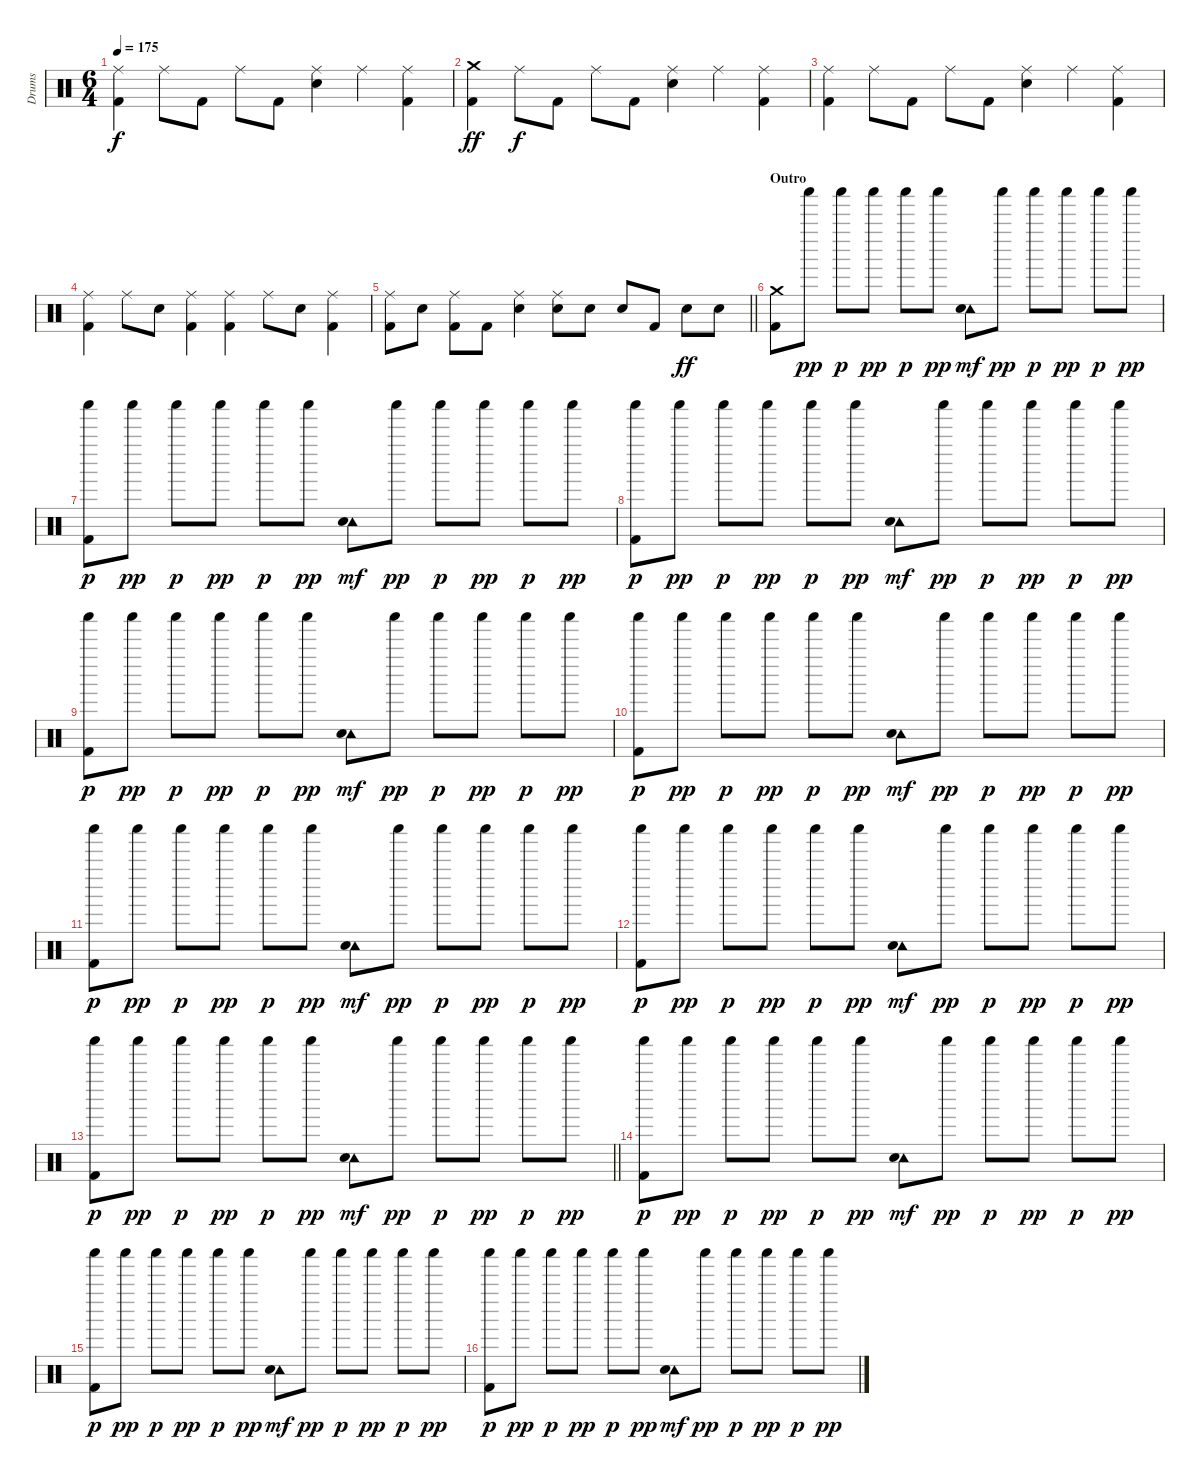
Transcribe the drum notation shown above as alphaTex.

\track ("Drums" "Drums") {instrument percussion}
\staff {score}
\articulation defaults
\ts (6 4)
\tempo 175
\clef neutral
\ks c
("Ride (middle)" "Kick (hit) 2").4{dy f} "Ride (middle)".8 "Kick (hit) 2".8 "Ride (middle)".8 "Kick (hit) 2".8 ("Ride (middle)" "Snare (hit) 2").4 "Ride (middle)".4 ("Ride (middle)" "Kick (hit) 2").4 |
("Crash medium (hit)" "Kick (hit) 2").4{dy ff} "Ride (middle)".8{dy f} "Kick (hit) 2".8 "Ride (middle)".8 "Kick (hit) 2".8 ("Ride (middle)" "Snare (hit) 2").4 "Ride (middle)".4 ("Ride (middle)" "Kick (hit) 2").4 |
("Ride (middle)" "Kick (hit) 2").4 "Ride (middle)".8 "Kick (hit) 2".8 "Ride (middle)".8 "Kick (hit) 2".8 ("Ride (middle)" "Snare (hit) 2").4 "Ride (middle)".4 ("Ride (middle)" "Kick (hit) 2").4 |
("Ride (middle)" "Kick (hit) 2").4 "Ride (middle)".8 "Snare (hit) 2".8 ("Ride (middle)" "Kick (hit) 2").4 ("Ride (middle)" "Kick (hit) 2").4 "Ride (middle)".8 "Snare (hit) 2".8 ("Ride (middle)" "Kick (hit) 2").4 |
\barLineRight lightlight
("Ride (middle)" "Kick (hit) 2").8 "Snare (hit) 2".8 ("Ride (middle)" "Kick (hit) 2").8 "Kick (hit) 2".8 ("Ride (middle)" "Snare (hit) 2").4 ("Ride (middle)" "Snare (hit) 2").8 "Snare (hit) 2".8 "Snare (hit) 2".8 "Kick (hit) 2".8 "Snare (hit) 2".8{dy ff} "Snare (hit) 2".8 |
\section ("" "Outro")
("Crash medium (hit)" "Kick (hit) 2").8 "Shaker (hit)".8{dy pp} "Shaker (hit)".8{dy p} "Shaker (hit)".8{dy pp} "Shaker (hit)".8{dy p} "Shaker (hit)".8{dy pp} ("Tambourine (hit)" "Snare (hit) 2").8{dy mf} "Shaker (hit)".8{dy pp} "Shaker (hit)".8{dy p} "Shaker (hit)".8{dy pp} "Shaker (hit)".8{dy p} "Shaker (hit)".8{dy pp} |
("Shaker (hit)" "Kick (hit) 2").8{dy p} "Shaker (hit)".8{dy pp} "Shaker (hit)".8{dy p} "Shaker (hit)".8{dy pp} "Shaker (hit)".8{dy p} "Shaker (hit)".8{dy pp} ("Tambourine (hit)" "Snare (hit) 2").8{dy mf} "Shaker (hit)".8{dy pp} "Shaker (hit)".8{dy p} "Shaker (hit)".8{dy pp} "Shaker (hit)".8{dy p} "Shaker (hit)".8{dy pp} |
("Shaker (hit)" "Kick (hit) 2").8{dy p} "Shaker (hit)".8{dy pp} "Shaker (hit)".8{dy p} "Shaker (hit)".8{dy pp} "Shaker (hit)".8{dy p} "Shaker (hit)".8{dy pp} ("Tambourine (hit)" "Snare (hit) 2").8{dy mf} "Shaker (hit)".8{dy pp} "Shaker (hit)".8{dy p} "Shaker (hit)".8{dy pp} "Shaker (hit)".8{dy p} "Shaker (hit)".8{dy pp} |
("Shaker (hit)" "Kick (hit) 2").8{dy p} "Shaker (hit)".8{dy pp} "Shaker (hit)".8{dy p} "Shaker (hit)".8{dy pp} "Shaker (hit)".8{dy p} "Shaker (hit)".8{dy pp} ("Tambourine (hit)" "Snare (hit) 2").8{dy mf} "Shaker (hit)".8{dy pp} "Shaker (hit)".8{dy p} "Shaker (hit)".8{dy pp} "Shaker (hit)".8{dy p} "Shaker (hit)".8{dy pp} |
("Shaker (hit)" "Kick (hit) 2").8{dy p} "Shaker (hit)".8{dy pp} "Shaker (hit)".8{dy p} "Shaker (hit)".8{dy pp} "Shaker (hit)".8{dy p} "Shaker (hit)".8{dy pp} ("Tambourine (hit)" "Snare (hit) 2").8{dy mf} "Shaker (hit)".8{dy pp} "Shaker (hit)".8{dy p} "Shaker (hit)".8{dy pp} "Shaker (hit)".8{dy p} "Shaker (hit)".8{dy pp} |
("Shaker (hit)" "Kick (hit) 2").8{dy p} "Shaker (hit)".8{dy pp} "Shaker (hit)".8{dy p} "Shaker (hit)".8{dy pp} "Shaker (hit)".8{dy p} "Shaker (hit)".8{dy pp} ("Tambourine (hit)" "Snare (hit) 2").8{dy mf} "Shaker (hit)".8{dy pp} "Shaker (hit)".8{dy p} "Shaker (hit)".8{dy pp} "Shaker (hit)".8{dy p} "Shaker (hit)".8{dy pp} |
("Shaker (hit)" "Kick (hit) 2").8{dy p} "Shaker (hit)".8{dy pp} "Shaker (hit)".8{dy p} "Shaker (hit)".8{dy pp} "Shaker (hit)".8{dy p} "Shaker (hit)".8{dy pp} ("Tambourine (hit)" "Snare (hit) 2").8{dy mf} "Shaker (hit)".8{dy pp} "Shaker (hit)".8{dy p} "Shaker (hit)".8{dy pp} "Shaker (hit)".8{dy p} "Shaker (hit)".8{dy pp} |
\barLineRight lightlight
("Shaker (hit)" "Kick (hit) 2").8{dy p} "Shaker (hit)".8{dy pp} "Shaker (hit)".8{dy p} "Shaker (hit)".8{dy pp} "Shaker (hit)".8{dy p} "Shaker (hit)".8{dy pp} ("Tambourine (hit)" "Snare (hit) 2").8{dy mf} "Shaker (hit)".8{dy pp} "Shaker (hit)".8{dy p} "Shaker (hit)".8{dy pp} "Shaker (hit)".8{dy p} "Shaker (hit)".8{dy pp} |
("Shaker (hit)" "Kick (hit) 2").8{dy p} "Shaker (hit)".8{dy pp} "Shaker (hit)".8{dy p} "Shaker (hit)".8{dy pp} "Shaker (hit)".8{dy p} "Shaker (hit)".8{dy pp} ("Tambourine (hit)" "Snare (hit) 2").8{dy mf} "Shaker (hit)".8{dy pp} "Shaker (hit)".8{dy p} "Shaker (hit)".8{dy pp} "Shaker (hit)".8{dy p} "Shaker (hit)".8{dy pp} |
("Shaker (hit)" "Kick (hit) 2").8{dy p} "Shaker (hit)".8{dy pp} "Shaker (hit)".8{dy p} "Shaker (hit)".8{dy pp} "Shaker (hit)".8{dy p} "Shaker (hit)".8{dy pp} ("Tambourine (hit)" "Snare (hit) 2").8{dy mf} "Shaker (hit)".8{dy pp} "Shaker (hit)".8{dy p} "Shaker (hit)".8{dy pp} "Shaker (hit)".8{dy p} "Shaker (hit)".8{dy pp} |
("Shaker (hit)" "Kick (hit) 2").8{dy p} "Shaker (hit)".8{dy pp} "Shaker (hit)".8{dy p} "Shaker (hit)".8{dy pp} "Shaker (hit)".8{dy p} "Shaker (hit)".8{dy pp} ("Tambourine (hit)" "Snare (hit) 2").8{dy mf} "Shaker (hit)".8{dy pp} "Shaker (hit)".8{dy p} "Shaker (hit)".8{dy pp} "Shaker (hit)".8{dy p} "Shaker (hit)".8{dy pp}
